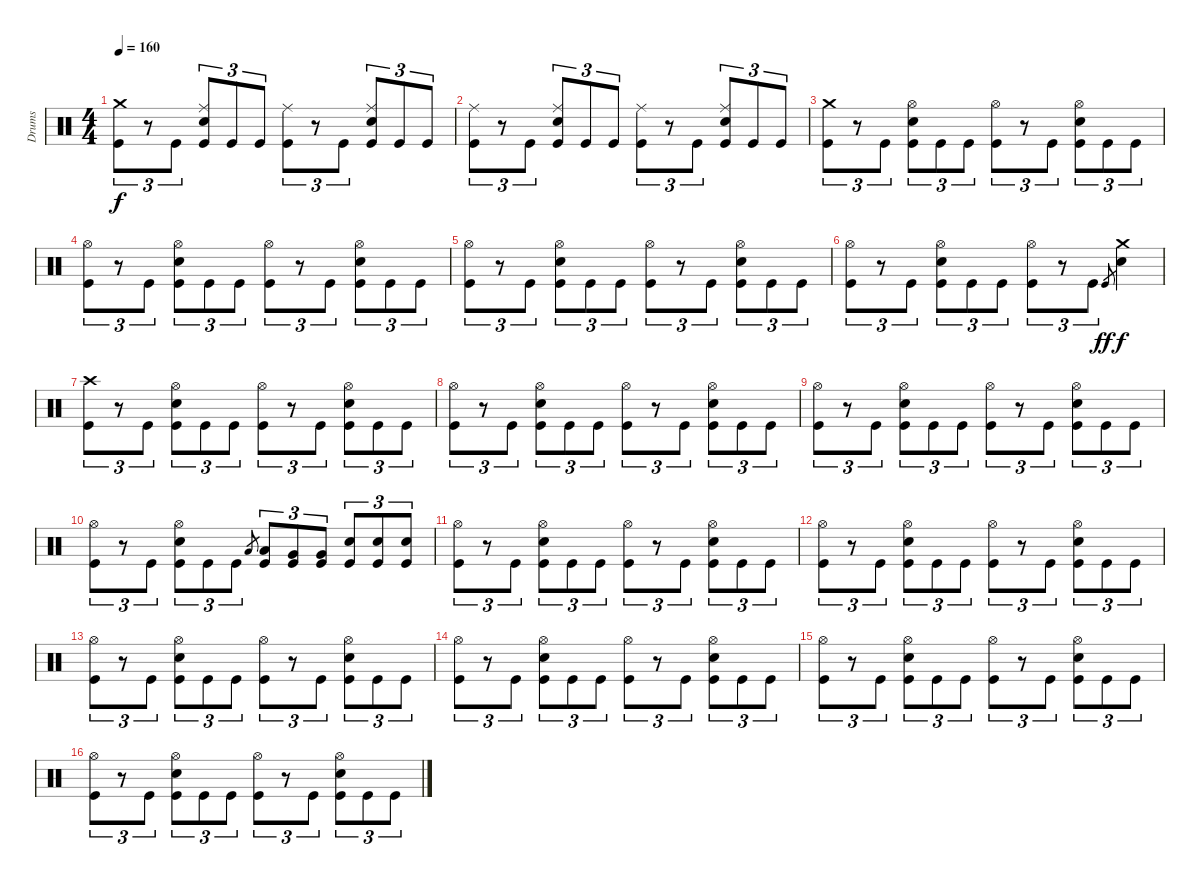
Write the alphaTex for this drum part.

\track ("Drums" "Drums") {instrument percussion}
\staff {score}
\articulation defaults
\ts (4 4)
\tempo 160
\clef neutral
\ks c
("Crash medium (hit)" "Kick (hit)").8{tu (3 2) dy f} r.8{tu (3 2)} "Kick (hit)".8{tu (3 2)} ("Ride (middle)" "Snare (hit) 2" "Kick (hit)").8{tu (3 2)} "Kick (hit)".8{tu (3 2)} "Kick (hit)".8{tu (3 2)} ("Ride (middle)" "Kick (hit)").8{tu (3 2)} r.8{tu (3 2)} "Kick (hit)".8{tu (3 2)} ("Ride (middle)" "Snare (hit) 2" "Kick (hit)").8{tu (3 2)} "Kick (hit)".8{tu (3 2)} "Kick (hit)".8{tu (3 2)} |
("Ride (middle)" "Kick (hit)").8{tu (3 2)} r.8{tu (3 2)} "Kick (hit)".8{tu (3 2)} ("Ride (middle)" "Snare (hit) 2" "Kick (hit)").8{tu (3 2)} "Kick (hit)".8{tu (3 2)} "Kick (hit)".8{tu (3 2)} ("Ride (middle)" "Kick (hit)").8{tu (3 2)} r.8{tu (3 2)} "Kick (hit)".8{tu (3 2)} ("Ride (middle)" "Snare (hit) 2" "Kick (hit)").8{tu (3 2)} "Kick (hit)".8{tu (3 2)} "Kick (hit)".8{tu (3 2)} |
("Crash medium (hit)" "Kick (hit)").8{tu (3 2)} r.8{tu (3 2)} "Kick (hit)".8{tu (3 2)} ("Hi-Hat (open)" "Snare (hit) 2" "Kick (hit)").8{tu (3 2)} "Kick (hit)".8{tu (3 2)} "Kick (hit)".8{tu (3 2)} ("Hi-Hat (open)" "Kick (hit)").8{tu (3 2)} r.8{tu (3 2)} "Kick (hit)".8{tu (3 2)} ("Hi-Hat (open)" "Snare (hit) 2" "Kick (hit)").8{tu (3 2)} "Kick (hit)".8{tu (3 2)} "Kick (hit)".8{tu (3 2)} |
("Hi-Hat (open)" "Kick (hit)").8{tu (3 2)} r.8{tu (3 2)} "Kick (hit)".8{tu (3 2)} ("Hi-Hat (open)" "Snare (hit) 2" "Kick (hit)").8{tu (3 2)} "Kick (hit)".8{tu (3 2)} "Kick (hit)".8{tu (3 2)} ("Hi-Hat (open)" "Kick (hit)").8{tu (3 2)} r.8{tu (3 2)} "Kick (hit)".8{tu (3 2)} ("Hi-Hat (open)" "Snare (hit) 2" "Kick (hit)").8{tu (3 2)} "Kick (hit)".8{tu (3 2)} "Kick (hit)".8{tu (3 2)} |
("Hi-Hat (open)" "Kick (hit)").8{tu (3 2)} r.8{tu (3 2)} "Kick (hit)".8{tu (3 2)} ("Hi-Hat (open)" "Snare (hit) 2" "Kick (hit)").8{tu (3 2)} "Kick (hit)".8{tu (3 2)} "Kick (hit)".8{tu (3 2)} ("Hi-Hat (open)" "Kick (hit)").8{tu (3 2)} r.8{tu (3 2)} "Kick (hit)".8{tu (3 2)} ("Hi-Hat (open)" "Snare (hit) 2" "Kick (hit)").8{tu (3 2)} "Kick (hit)".8{tu (3 2)} "Kick (hit)".8{tu (3 2)} |
("Hi-Hat (open)" "Kick (hit)").8{tu (3 2)} r.8{tu (3 2)} "Kick (hit)".8{tu (3 2)} ("Hi-Hat (open)" "Snare (hit) 2" "Kick (hit)").8{tu (3 2)} "Kick (hit)".8{tu (3 2)} "Kick (hit)".8{tu (3 2)} ("Hi-Hat (open)" "Kick (hit)").8{tu (3 2)} r.8{tu (3 2)} "Kick (hit)".8{tu (3 2)} "Kick (hit)".8{gr dy ff} ("Crash medium (hit)" "Snare (hit) 2").4{dy f} |
("Crash high (hit)" "Kick (hit)").8{tu (3 2)} r.8{tu (3 2)} "Kick (hit)".8{tu (3 2)} ("Hi-Hat (open)" "Snare (hit) 2" "Kick (hit)").8{tu (3 2)} "Kick (hit)".8{tu (3 2)} "Kick (hit)".8{tu (3 2)} ("Hi-Hat (open)" "Kick (hit)").8{tu (3 2)} r.8{tu (3 2)} "Kick (hit)".8{tu (3 2)} ("Hi-Hat (open)" "Snare (hit) 2" "Kick (hit)").8{tu (3 2)} "Kick (hit)".8{tu (3 2)} "Kick (hit)".8{tu (3 2)} |
("Hi-Hat (open)" "Kick (hit)").8{tu (3 2)} r.8{tu (3 2)} "Kick (hit)".8{tu (3 2)} ("Hi-Hat (open)" "Snare (hit) 2" "Kick (hit)").8{tu (3 2)} "Kick (hit)".8{tu (3 2)} "Kick (hit)".8{tu (3 2)} ("Hi-Hat (open)" "Kick (hit)").8{tu (3 2)} r.8{tu (3 2)} "Kick (hit)".8{tu (3 2)} ("Hi-Hat (open)" "Snare (hit) 2" "Kick (hit)").8{tu (3 2)} "Kick (hit)".8{tu (3 2)} "Kick (hit)".8{tu (3 2)} |
("Hi-Hat (open)" "Kick (hit)").8{tu (3 2)} r.8{tu (3 2)} "Kick (hit)".8{tu (3 2)} ("Hi-Hat (open)" "Snare (hit) 2" "Kick (hit)").8{tu (3 2)} "Kick (hit)".8{tu (3 2)} "Kick (hit)".8{tu (3 2)} ("Hi-Hat (open)" "Kick (hit)").8{tu (3 2)} r.8{tu (3 2)} "Kick (hit)".8{tu (3 2)} ("Hi-Hat (open)" "Snare (hit) 2" "Kick (hit)").8{tu (3 2)} "Kick (hit)".8{tu (3 2)} "Kick (hit)".8{tu (3 2)} |
("Hi-Hat (open)" "Kick (hit)").8{tu (3 2)} r.8{tu (3 2)} "Kick (hit)".8{tu (3 2)} ("Hi-Hat (open)" "Snare (hit) 2" "Kick (hit)").8{tu (3 2)} "Kick (hit)".8{tu (3 2)} "Kick (hit)".8{tu (3 2)} "Low Tom (hit)".8{gr} ("Low Tom (hit)" "Kick (hit)").8{tu (3 2)} ("Very Low Tom (hit)" "Kick (hit)").8{tu (3 2)} ("Very Low Tom (hit)" "Kick (hit)").8{tu (3 2)} ("Snare (hit) 2" "Kick (hit)").8{tu (3 2)} ("Snare (hit) 2" "Kick (hit)").8{tu (3 2)} ("Snare (hit) 2" "Kick (hit)").8{tu (3 2)} |
("Hi-Hat (open)" "Kick (hit)").8{tu (3 2)} r.8{tu (3 2)} "Kick (hit)".8{tu (3 2)} ("Hi-Hat (open)" "Snare (hit) 2" "Kick (hit)").8{tu (3 2)} "Kick (hit)".8{tu (3 2)} "Kick (hit)".8{tu (3 2)} ("Hi-Hat (open)" "Kick (hit)").8{tu (3 2)} r.8{tu (3 2)} "Kick (hit)".8{tu (3 2)} ("Hi-Hat (open)" "Snare (hit) 2" "Kick (hit)").8{tu (3 2)} "Kick (hit)".8{tu (3 2)} "Kick (hit)".8{tu (3 2)} |
("Hi-Hat (open)" "Kick (hit)").8{tu (3 2)} r.8{tu (3 2)} "Kick (hit)".8{tu (3 2)} ("Hi-Hat (open)" "Snare (hit) 2" "Kick (hit)").8{tu (3 2)} "Kick (hit)".8{tu (3 2)} "Kick (hit)".8{tu (3 2)} ("Hi-Hat (open)" "Kick (hit)").8{tu (3 2)} r.8{tu (3 2)} "Kick (hit)".8{tu (3 2)} ("Hi-Hat (open)" "Snare (hit) 2" "Kick (hit)").8{tu (3 2)} "Kick (hit)".8{tu (3 2)} "Kick (hit)".8{tu (3 2)} |
("Hi-Hat (open)" "Kick (hit)").8{tu (3 2)} r.8{tu (3 2)} "Kick (hit)".8{tu (3 2)} ("Hi-Hat (open)" "Snare (hit) 2" "Kick (hit)").8{tu (3 2)} "Kick (hit)".8{tu (3 2)} "Kick (hit)".8{tu (3 2)} ("Hi-Hat (open)" "Kick (hit)").8{tu (3 2)} r.8{tu (3 2)} "Kick (hit)".8{tu (3 2)} ("Hi-Hat (open)" "Snare (hit) 2" "Kick (hit)").8{tu (3 2)} "Kick (hit)".8{tu (3 2)} "Kick (hit)".8{tu (3 2)} |
("Hi-Hat (open)" "Kick (hit)").8{tu (3 2)} r.8{tu (3 2)} "Kick (hit)".8{tu (3 2)} ("Hi-Hat (open)" "Snare (hit) 2" "Kick (hit)").8{tu (3 2)} "Kick (hit)".8{tu (3 2)} "Kick (hit)".8{tu (3 2)} ("Hi-Hat (open)" "Kick (hit)").8{tu (3 2)} r.8{tu (3 2)} "Kick (hit)".8{tu (3 2)} ("Hi-Hat (open)" "Snare (hit) 2" "Kick (hit)").8{tu (3 2)} "Kick (hit)".8{tu (3 2)} "Kick (hit)".8{tu (3 2)} |
("Hi-Hat (open)" "Kick (hit)").8{tu (3 2)} r.8{tu (3 2)} "Kick (hit)".8{tu (3 2)} ("Hi-Hat (open)" "Snare (hit) 2" "Kick (hit)").8{tu (3 2)} "Kick (hit)".8{tu (3 2)} "Kick (hit)".8{tu (3 2)} ("Hi-Hat (open)" "Kick (hit)").8{tu (3 2)} r.8{tu (3 2)} "Kick (hit)".8{tu (3 2)} ("Hi-Hat (open)" "Snare (hit) 2" "Kick (hit)").8{tu (3 2)} "Kick (hit)".8{tu (3 2)} "Kick (hit)".8{tu (3 2)} |
("Hi-Hat (open)" "Kick (hit)").8{tu (3 2)} r.8{tu (3 2)} "Kick (hit)".8{tu (3 2)} ("Hi-Hat (open)" "Snare (hit) 2" "Kick (hit)").8{tu (3 2)} "Kick (hit)".8{tu (3 2)} "Kick (hit)".8{tu (3 2)} ("Hi-Hat (open)" "Kick (hit)").8{tu (3 2)} r.8{tu (3 2)} "Kick (hit)".8{tu (3 2)} ("Hi-Hat (open)" "Snare (hit) 2" "Kick (hit)").8{tu (3 2)} "Kick (hit)".8{tu (3 2)} "Kick (hit)".8{tu (3 2)}
